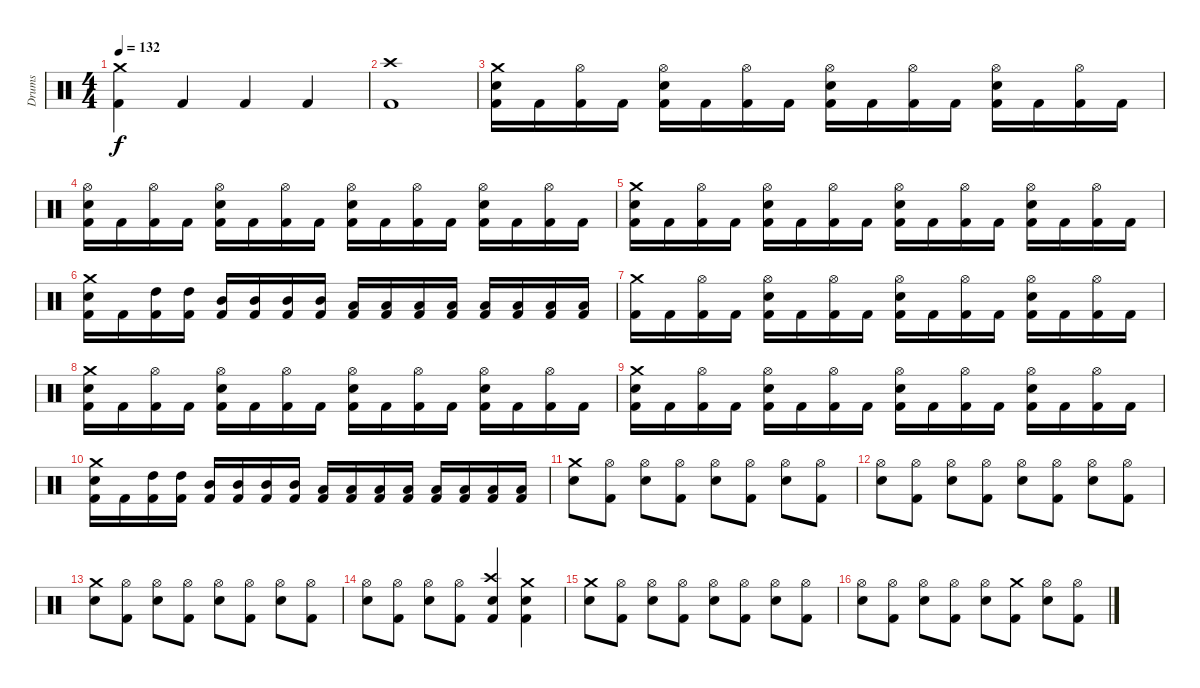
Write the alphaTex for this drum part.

\track ("Drums" "Drums") {instrument percussion}
\staff {score}
\articulation defaults
\ts (4 4)
\tempo 132
\clef neutral
\ks c
("Crash medium (hit)" "Kick (hit) 2").4{dy f} "Kick (hit) 2".4 "Kick (hit) 2".4 "Kick (hit) 2".4 |
("Crash high (hit)" "Kick (hit) 2").1 |
("Crash medium (hit)" "Electric Snare (hit)" "Kick (hit) 2").16 "Kick (hit) 2".16 ("Hi-Hat (open)" "Kick (hit) 2").16 "Kick (hit) 2".16 ("Hi-Hat (open)" "Electric Snare (hit)" "Kick (hit) 2").16 "Kick (hit) 2".16 ("Hi-Hat (open)" "Kick (hit) 2").16 "Kick (hit) 2".16 ("Hi-Hat (open)" "Electric Snare (hit)" "Kick (hit) 2").16 "Kick (hit) 2".16 ("Hi-Hat (open)" "Kick (hit) 2").16 "Kick (hit) 2".16 ("Hi-Hat (open)" "Electric Snare (hit)" "Kick (hit) 2").16 "Kick (hit) 2".16 ("Hi-Hat (open)" "Kick (hit) 2").16 "Kick (hit) 2".16 |
("Hi-Hat (open)" "Electric Snare (hit)" "Kick (hit) 2").16 "Kick (hit) 2".16 ("Hi-Hat (open)" "Kick (hit) 2").16 "Kick (hit) 2".16 ("Hi-Hat (open)" "Electric Snare (hit)" "Kick (hit) 2").16 "Kick (hit) 2".16 ("Hi-Hat (open)" "Kick (hit) 2").16 "Kick (hit) 2".16 ("Hi-Hat (open)" "Electric Snare (hit)" "Kick (hit) 2").16 "Kick (hit) 2".16 ("Hi-Hat (open)" "Kick (hit) 2").16 "Kick (hit) 2".16 ("Hi-Hat (open)" "Electric Snare (hit)" "Kick (hit) 2").16 "Kick (hit) 2".16 ("Hi-Hat (open)" "Kick (hit) 2").16 "Kick (hit) 2".16 |
("Crash medium (hit)" "Electric Snare (hit)" "Kick (hit) 2").16 "Kick (hit) 2".16 ("Hi-Hat (open)" "Kick (hit) 2").16 "Kick (hit) 2".16 ("Hi-Hat (open)" "Electric Snare (hit)" "Kick (hit) 2").16 "Kick (hit) 2".16 ("Hi-Hat (open)" "Kick (hit) 2").16 "Kick (hit) 2".16 ("Hi-Hat (open)" "Electric Snare (hit)" "Kick (hit) 2").16 "Kick (hit) 2".16 ("Hi-Hat (open)" "Kick (hit) 2").16 "Kick (hit) 2".16 ("Hi-Hat (open)" "Electric Snare (hit)" "Kick (hit) 2").16 "Kick (hit) 2".16 ("Hi-Hat (open)" "Kick (hit) 2").16 "Kick (hit) 2".16 |
("Crash medium (hit)" "Electric Snare (hit)" "Kick (hit) 2").16 "Kick (hit) 2".16 ("High Tom (hit)" "Kick (hit) 2").16 ("High Tom (hit)" "Kick (hit) 2").16 ("Mid Tom (hit)" "Kick (hit) 2").16 ("Mid Tom (hit)" "Kick (hit) 2").16 ("Mid Tom (hit)" "Kick (hit) 2").16 ("Mid Tom (hit)" "Kick (hit) 2").16 ("Low Tom (hit)" "Kick (hit) 2").16 ("Low Tom (hit)" "Kick (hit) 2").16 ("Low Tom (hit)" "Kick (hit) 2").16 ("Low Tom (hit)" "Kick (hit) 2").16 ("Low Floor Tom (hit)" "Kick (hit) 2").16 ("Low Floor Tom (hit)" "Kick (hit) 2").16 ("Low Floor Tom (hit)" "Kick (hit) 2").16 ("Low Floor Tom (hit)" "Kick (hit) 2").16 |
("Crash medium (hit)" "Kick (hit) 2").16 "Kick (hit) 2".16 ("Hi-Hat (open)" "Kick (hit) 2").16 "Kick (hit) 2".16 ("Hi-Hat (open)" "Electric Snare (hit)" "Kick (hit) 2").16 "Kick (hit) 2".16 ("Hi-Hat (open)" "Kick (hit) 2").16 "Kick (hit) 2".16 ("Hi-Hat (open)" "Electric Snare (hit)" "Kick (hit) 2").16 "Kick (hit) 2".16 ("Hi-Hat (open)" "Kick (hit) 2").16 "Kick (hit) 2".16 ("Hi-Hat (open)" "Electric Snare (hit)" "Kick (hit) 2").16 "Kick (hit) 2".16 ("Hi-Hat (open)" "Kick (hit) 2").16 "Kick (hit) 2".16 |
("Crash medium (hit)" "Electric Snare (hit)" "Kick (hit) 2").16 "Kick (hit) 2".16 ("Hi-Hat (open)" "Kick (hit) 2").16 "Kick (hit) 2".16 ("Hi-Hat (open)" "Electric Snare (hit)" "Kick (hit) 2").16 "Kick (hit) 2".16 ("Hi-Hat (open)" "Kick (hit) 2").16 "Kick (hit) 2".16 ("Hi-Hat (open)" "Electric Snare (hit)" "Kick (hit) 2").16 "Kick (hit) 2".16 ("Hi-Hat (open)" "Kick (hit) 2").16 "Kick (hit) 2".16 ("Hi-Hat (open)" "Electric Snare (hit)" "Kick (hit) 2").16 "Kick (hit) 2".16 ("Hi-Hat (open)" "Kick (hit) 2").16 "Kick (hit) 2".16 |
("Crash medium (hit)" "Electric Snare (hit)" "Kick (hit) 2").16 "Kick (hit) 2".16 ("Hi-Hat (open)" "Kick (hit) 2").16 "Kick (hit) 2".16 ("Hi-Hat (open)" "Electric Snare (hit)" "Kick (hit) 2").16 "Kick (hit) 2".16 ("Hi-Hat (open)" "Kick (hit) 2").16 "Kick (hit) 2".16 ("Hi-Hat (open)" "Electric Snare (hit)" "Kick (hit) 2").16 "Kick (hit) 2".16 ("Hi-Hat (open)" "Kick (hit) 2").16 "Kick (hit) 2".16 ("Hi-Hat (open)" "Electric Snare (hit)" "Kick (hit) 2").16 "Kick (hit) 2".16 ("Hi-Hat (open)" "Kick (hit) 2").16 "Kick (hit) 2".16 |
("Crash medium (hit)" "Electric Snare (hit)" "Kick (hit) 2").16 "Kick (hit) 2".16 ("High Tom (hit)" "Kick (hit) 2").16 ("High Tom (hit)" "Kick (hit) 2").16 ("Mid Tom (hit)" "Kick (hit) 2").16 ("Mid Tom (hit)" "Kick (hit) 2").16 ("Mid Tom (hit)" "Kick (hit) 2").16 ("Mid Tom (hit)" "Kick (hit) 2").16 ("Low Tom (hit)" "Kick (hit) 2").16 ("Low Tom (hit)" "Kick (hit) 2").16 ("Low Tom (hit)" "Kick (hit) 2").16 ("Low Tom (hit)" "Kick (hit) 2").16 ("Low Floor Tom (hit)" "Kick (hit) 2").16 ("Low Floor Tom (hit)" "Kick (hit) 2").16 ("Low Floor Tom (hit)" "Kick (hit) 2").16 ("Low Floor Tom (hit)" "Kick (hit) 2").16 |
("Crash medium (hit)" "Electric Snare (hit)").8 ("Hi-Hat (open)" "Kick (hit) 2").8 ("Hi-Hat (open)" "Electric Snare (hit)").8 ("Hi-Hat (open)" "Kick (hit) 2").8 ("Hi-Hat (open)" "Electric Snare (hit)").8 ("Hi-Hat (open)" "Kick (hit) 2").8 ("Hi-Hat (open)" "Electric Snare (hit)").8 ("Hi-Hat (open)" "Kick (hit) 2").8 |
("Hi-Hat (open)" "Electric Snare (hit)").8 ("Hi-Hat (open)" "Kick (hit) 2").8 ("Hi-Hat (open)" "Electric Snare (hit)").8 ("Hi-Hat (open)" "Kick (hit) 2").8 ("Hi-Hat (open)" "Electric Snare (hit)").8 ("Hi-Hat (open)" "Kick (hit) 2").8 ("Hi-Hat (open)" "Electric Snare (hit)").8 ("Hi-Hat (open)" "Kick (hit) 2").8 |
("Crash medium (hit)" "Electric Snare (hit)").8 ("Hi-Hat (open)" "Kick (hit) 2").8 ("Hi-Hat (open)" "Electric Snare (hit)").8 ("Hi-Hat (open)" "Kick (hit) 2").8 ("Hi-Hat (open)" "Electric Snare (hit)").8 ("Hi-Hat (open)" "Kick (hit) 2").8 ("Hi-Hat (open)" "Electric Snare (hit)").8 ("Hi-Hat (open)" "Kick (hit) 2").8 |
("Hi-Hat (open)" "Electric Snare (hit)").8 ("Hi-Hat (open)" "Kick (hit) 2").8 ("Hi-Hat (open)" "Electric Snare (hit)").8 ("Hi-Hat (open)" "Kick (hit) 2").8 ("Crash high (hit)" "Electric Snare (hit)" "Kick (hit) 2").4 ("Crash medium (hit)" "Electric Snare (hit)" "Kick (hit) 2").4 |
("Crash medium (hit)" "Electric Snare (hit)").8 ("Hi-Hat (open)" "Kick (hit) 2").8 ("Hi-Hat (open)" "Electric Snare (hit)").8 ("Hi-Hat (open)" "Kick (hit) 2").8 ("Hi-Hat (open)" "Electric Snare (hit)").8 ("Hi-Hat (open)" "Kick (hit) 2").8 ("Hi-Hat (open)" "Electric Snare (hit)").8 ("Hi-Hat (open)" "Kick (hit) 2").8 |
("Hi-Hat (open)" "Electric Snare (hit)").8 ("Hi-Hat (open)" "Kick (hit) 2").8 ("Hi-Hat (open)" "Electric Snare (hit)").8 ("Hi-Hat (open)" "Kick (hit) 2").8 ("Hi-Hat (open)" "Electric Snare (hit)").8 ("Crash medium (hit)" "Kick (hit) 2").8 ("Hi-Hat (open)" "Electric Snare (hit)").8 ("Hi-Hat (open)" "Kick (hit) 2").8
